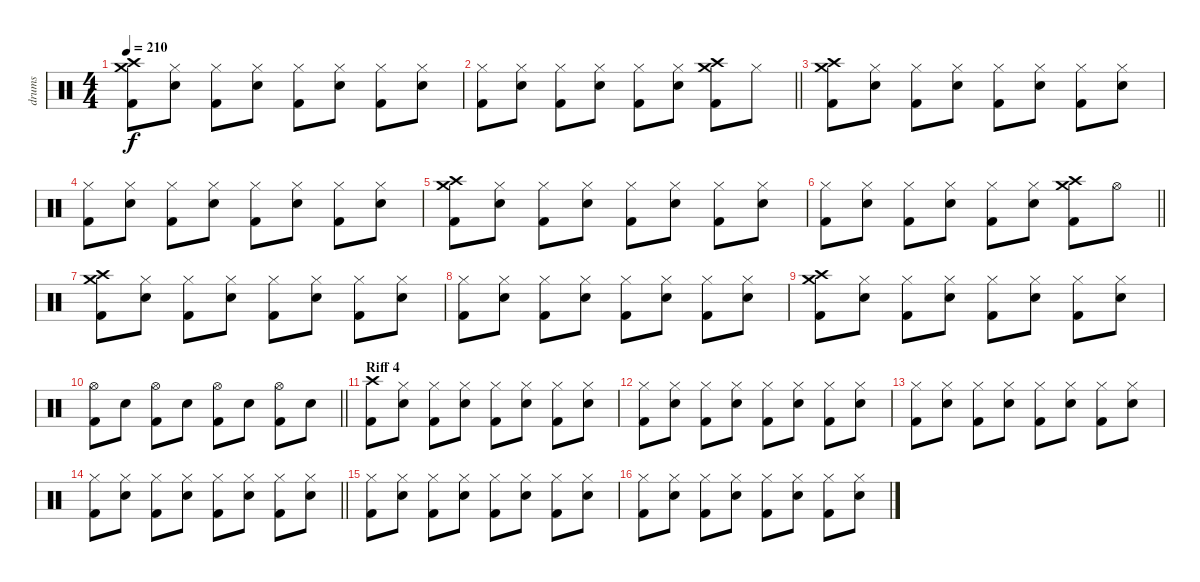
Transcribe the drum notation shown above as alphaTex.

\track ("drums" "drums") {instrument percussion}
\staff {score}
\articulation defaults
\ts (4 4)
\tempo 210
\clef neutral
\ks c
("Crash high (hit)" "Crash medium (hit)" "Kick (hit) 2").8{dy f} ("Hi-Hat (closed)" "Electric Snare (hit)").8 ("Hi-Hat (closed)" "Kick (hit) 2").8 ("Hi-Hat (closed)" "Electric Snare (hit)").8 ("Hi-Hat (closed)" "Kick (hit) 2").8 ("Hi-Hat (closed)" "Electric Snare (hit)").8 ("Hi-Hat (closed)" "Kick (hit) 2").8 ("Hi-Hat (closed)" "Electric Snare (hit)").8 |
\barLineRight lightlight
("Hi-Hat (closed)" "Kick (hit) 2").8 ("Hi-Hat (closed)" "Electric Snare (hit)").8 ("Hi-Hat (closed)" "Kick (hit) 2").8 ("Hi-Hat (closed)" "Electric Snare (hit)").8 ("Hi-Hat (closed)" "Kick (hit) 2").8 ("Hi-Hat (closed)" "Electric Snare (hit)").8 ("Crash high (hit)" "Crash medium (hit)" "Kick (hit) 2").8 "Hi-Hat (closed)".8 |
("Crash high (hit)" "Crash medium (hit)" "Kick (hit) 2").8 ("Hi-Hat (closed)" "Electric Snare (hit)").8 ("Hi-Hat (closed)" "Kick (hit) 2").8 ("Hi-Hat (closed)" "Electric Snare (hit)").8 ("Hi-Hat (closed)" "Kick (hit) 2").8 ("Hi-Hat (closed)" "Electric Snare (hit)").8 ("Hi-Hat (closed)" "Kick (hit) 2").8 ("Hi-Hat (closed)" "Electric Snare (hit)").8 |
("Hi-Hat (closed)" "Kick (hit) 2").8 ("Hi-Hat (closed)" "Electric Snare (hit)").8 ("Hi-Hat (closed)" "Kick (hit) 2").8 ("Hi-Hat (closed)" "Electric Snare (hit)").8 ("Hi-Hat (closed)" "Kick (hit) 2").8 ("Hi-Hat (closed)" "Electric Snare (hit)").8 ("Hi-Hat (closed)" "Kick (hit) 2").8 ("Hi-Hat (closed)" "Electric Snare (hit)").8 |
("Crash high (hit)" "Crash medium (hit)" "Kick (hit) 2").8 ("Hi-Hat (closed)" "Electric Snare (hit)").8 ("Hi-Hat (closed)" "Kick (hit) 2").8 ("Hi-Hat (closed)" "Electric Snare (hit)").8 ("Hi-Hat (closed)" "Kick (hit) 2").8 ("Hi-Hat (closed)" "Electric Snare (hit)").8 ("Hi-Hat (closed)" "Kick (hit) 2").8 ("Hi-Hat (closed)" "Electric Snare (hit)").8 |
\barLineRight lightlight
("Hi-Hat (closed)" "Kick (hit) 2").8 ("Hi-Hat (closed)" "Electric Snare (hit)").8 ("Hi-Hat (closed)" "Kick (hit) 2").8 ("Hi-Hat (closed)" "Electric Snare (hit)").8 ("Hi-Hat (closed)" "Kick (hit) 2").8 ("Hi-Hat (closed)" "Electric Snare (hit)").8 ("Crash high (hit)" "Crash medium (hit)" "Kick (hit) 2").8 "Hi-Hat (open)".8 |
("Crash high (hit)" "Crash medium (hit)" "Kick (hit) 2").8 ("Hi-Hat (closed)" "Electric Snare (hit)").8 ("Hi-Hat (closed)" "Kick (hit) 2").8 ("Hi-Hat (closed)" "Electric Snare (hit)").8 ("Hi-Hat (closed)" "Kick (hit) 2").8 ("Hi-Hat (closed)" "Electric Snare (hit)").8 ("Hi-Hat (closed)" "Kick (hit) 2").8 ("Hi-Hat (closed)" "Electric Snare (hit)").8 |
("Hi-Hat (closed)" "Kick (hit) 2").8 ("Hi-Hat (closed)" "Electric Snare (hit)").8 ("Hi-Hat (closed)" "Kick (hit) 2").8 ("Hi-Hat (closed)" "Electric Snare (hit)").8 ("Hi-Hat (closed)" "Kick (hit) 2").8 ("Hi-Hat (closed)" "Electric Snare (hit)").8 ("Hi-Hat (closed)" "Kick (hit) 2").8 ("Hi-Hat (closed)" "Electric Snare (hit)").8 |
("Crash high (hit)" "Crash medium (hit)" "Kick (hit) 2").8 ("Hi-Hat (closed)" "Electric Snare (hit)").8 ("Hi-Hat (closed)" "Kick (hit) 2").8 ("Hi-Hat (closed)" "Electric Snare (hit)").8 ("Hi-Hat (closed)" "Kick (hit) 2").8 ("Hi-Hat (closed)" "Electric Snare (hit)").8 ("Hi-Hat (closed)" "Kick (hit) 2").8 ("Hi-Hat (closed)" "Electric Snare (hit)").8 |
\barLineRight lightlight
("Hi-Hat (open)" "Kick (hit) 2").8 "Electric Snare (hit)".8 ("Hi-Hat (open)" "Kick (hit) 2").8 "Electric Snare (hit)".8 ("Hi-Hat (open)" "Kick (hit) 2").8 "Electric Snare (hit)".8 ("Hi-Hat (open)" "Kick (hit) 2").8 "Electric Snare (hit)".8 |
\section ("" "Riff 4")
("Crash high (hit)" "Kick (hit) 2").8 ("Hi-Hat (closed)" "Electric Snare (hit)").8 ("Hi-Hat (closed)" "Kick (hit) 2").8 ("Hi-Hat (closed)" "Electric Snare (hit)").8 ("Hi-Hat (closed)" "Kick (hit) 2").8 ("Hi-Hat (closed)" "Electric Snare (hit)").8 ("Hi-Hat (closed)" "Kick (hit) 2").8 ("Hi-Hat (closed)" "Electric Snare (hit)").8 |
("Hi-Hat (closed)" "Kick (hit) 2").8 ("Hi-Hat (closed)" "Electric Snare (hit)").8 ("Hi-Hat (closed)" "Kick (hit) 2").8 ("Hi-Hat (closed)" "Electric Snare (hit)").8 ("Hi-Hat (closed)" "Kick (hit) 2").8 ("Hi-Hat (closed)" "Electric Snare (hit)").8 ("Hi-Hat (closed)" "Kick (hit) 2").8 ("Hi-Hat (closed)" "Electric Snare (hit)").8 |
("Hi-Hat (closed)" "Kick (hit) 2").8 ("Hi-Hat (closed)" "Electric Snare (hit)").8 ("Hi-Hat (closed)" "Kick (hit) 2").8 ("Hi-Hat (closed)" "Electric Snare (hit)").8 ("Hi-Hat (closed)" "Kick (hit) 2").8 ("Hi-Hat (closed)" "Electric Snare (hit)").8 ("Hi-Hat (closed)" "Kick (hit) 2").8 ("Hi-Hat (closed)" "Electric Snare (hit)").8 |
\barLineRight lightlight
("Hi-Hat (closed)" "Kick (hit) 2").8 ("Hi-Hat (closed)" "Electric Snare (hit)").8 ("Hi-Hat (closed)" "Kick (hit) 2").8 ("Hi-Hat (closed)" "Electric Snare (hit)").8 ("Hi-Hat (closed)" "Kick (hit) 2").8 ("Hi-Hat (closed)" "Electric Snare (hit)").8 ("Hi-Hat (closed)" "Kick (hit) 2").8 ("Hi-Hat (closed)" "Electric Snare (hit)").8 |
("Hi-Hat (closed)" "Kick (hit) 2").8 ("Hi-Hat (closed)" "Electric Snare (hit)").8 ("Hi-Hat (closed)" "Kick (hit) 2").8 ("Hi-Hat (closed)" "Electric Snare (hit)").8 ("Hi-Hat (closed)" "Kick (hit) 2").8 ("Hi-Hat (closed)" "Electric Snare (hit)").8 ("Hi-Hat (closed)" "Kick (hit) 2").8 ("Hi-Hat (closed)" "Electric Snare (hit)").8 |
("Hi-Hat (closed)" "Kick (hit) 2").8 ("Hi-Hat (closed)" "Electric Snare (hit)").8 ("Hi-Hat (closed)" "Kick (hit) 2").8 ("Hi-Hat (closed)" "Electric Snare (hit)").8 ("Hi-Hat (closed)" "Kick (hit) 2").8 ("Hi-Hat (closed)" "Electric Snare (hit)").8 ("Hi-Hat (closed)" "Kick (hit) 2").8 ("Hi-Hat (closed)" "Electric Snare (hit)").8
